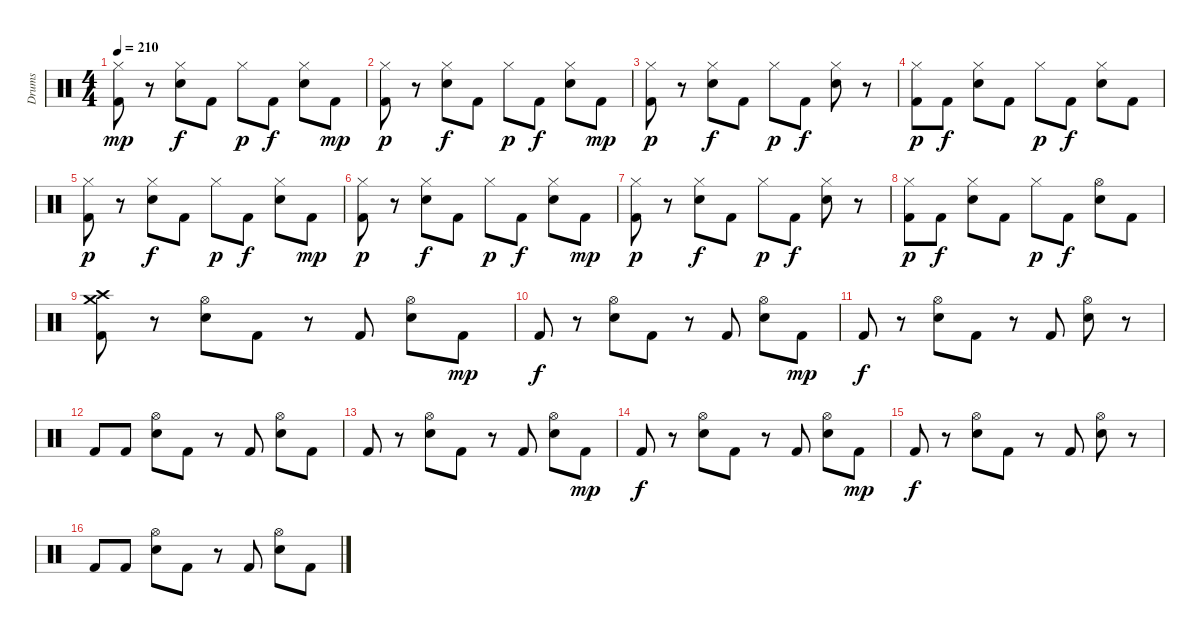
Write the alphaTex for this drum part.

\track ("Drums" "Drums") {instrument percussion}
\staff {score}
\articulation defaults
\ts (4 4)
\tempo 210
\clef neutral
\ks c
("Hi-Hat (closed)" "Kick (hit) 2").8{dy mp} r.8 ("Hi-Hat (closed)" "Electric Snare (hit)").8{dy f} "Kick (hit) 2".8 "Hi-Hat (closed)".8{dy p} "Kick (hit) 2".8{dy f} ("Hi-Hat (closed)" "Electric Snare (hit)").8 "Kick (hit) 2".8{dy mp} |
("Hi-Hat (closed)" "Kick (hit) 2").8{dy p} r.8 ("Hi-Hat (closed)" "Electric Snare (hit)").8{dy f} "Kick (hit) 2".8 "Hi-Hat (closed)".8{dy p} "Kick (hit) 2".8{dy f} ("Hi-Hat (closed)" "Electric Snare (hit)").8 "Kick (hit) 2".8{dy mp} |
("Hi-Hat (closed)" "Kick (hit) 2").8{dy p} r.8 ("Hi-Hat (closed)" "Electric Snare (hit)").8{dy f} "Kick (hit) 2".8 "Hi-Hat (closed)".8{dy p} "Kick (hit) 2".8{dy f} ("Hi-Hat (closed)" "Electric Snare (hit)").8 r.8 |
("Hi-Hat (closed)" "Kick (hit) 2").8{dy p} "Kick (hit) 2".8{dy f} ("Hi-Hat (closed)" "Electric Snare (hit)").8 "Kick (hit) 2".8 "Hi-Hat (closed)".8{dy p} "Kick (hit) 2".8{dy f} ("Hi-Hat (closed)" "Electric Snare (hit)").8 "Kick (hit) 2".8 |
("Hi-Hat (closed)" "Kick (hit) 2").8{dy p} r.8 ("Hi-Hat (closed)" "Electric Snare (hit)").8{dy f} "Kick (hit) 2".8 "Hi-Hat (closed)".8{dy p} "Kick (hit) 2".8{dy f} ("Hi-Hat (closed)" "Electric Snare (hit)").8 "Kick (hit) 2".8{dy mp} |
("Hi-Hat (closed)" "Kick (hit) 2").8{dy p} r.8 ("Hi-Hat (closed)" "Electric Snare (hit)").8{dy f} "Kick (hit) 2".8 "Hi-Hat (closed)".8{dy p} "Kick (hit) 2".8{dy f} ("Hi-Hat (closed)" "Electric Snare (hit)").8 "Kick (hit) 2".8{dy mp} |
("Hi-Hat (closed)" "Kick (hit) 2").8{dy p} r.8 ("Hi-Hat (closed)" "Electric Snare (hit)").8{dy f} "Kick (hit) 2".8 "Hi-Hat (closed)".8{dy p} "Kick (hit) 2".8{dy f} ("Hi-Hat (closed)" "Electric Snare (hit)").8 r.8 |
("Hi-Hat (closed)" "Kick (hit) 2").8{dy p} "Kick (hit) 2".8{dy f} ("Hi-Hat (closed)" "Electric Snare (hit)").8 "Kick (hit) 2".8 "Hi-Hat (closed)".8{dy p} "Kick (hit) 2".8{dy f} ("Hi-Hat (open)" "Electric Snare (hit)").8 "Kick (hit) 2".8 |
("Crash high (hit)" "Crash medium (hit)" "Kick (hit) 2").8 r.8 ("Hi-Hat (open)" "Electric Snare (hit)").8 "Kick (hit) 2".8 r.8 "Kick (hit) 2".8 ("Hi-Hat (open)" "Electric Snare (hit)").8 "Kick (hit) 2".8{dy mp} |
"Kick (hit) 2".8{dy f} r.8 ("Hi-Hat (open)" "Electric Snare (hit)").8 "Kick (hit) 2".8 r.8 "Kick (hit) 2".8 ("Hi-Hat (open)" "Electric Snare (hit)").8 "Kick (hit) 2".8{dy mp} |
"Kick (hit) 2".8{dy f} r.8 ("Hi-Hat (open)" "Electric Snare (hit)").8 "Kick (hit) 2".8 r.8 "Kick (hit) 2".8 ("Hi-Hat (open)" "Electric Snare (hit)").8 r.8 |
"Kick (hit) 2".8 "Kick (hit) 2".8 ("Hi-Hat (open)" "Electric Snare (hit)").8 "Kick (hit) 2".8 r.8 "Kick (hit) 2".8 ("Hi-Hat (open)" "Electric Snare (hit)").8 "Kick (hit) 2".8 |
"Kick (hit) 2".8 r.8 ("Hi-Hat (open)" "Electric Snare (hit)").8 "Kick (hit) 2".8 r.8 "Kick (hit) 2".8 ("Hi-Hat (open)" "Electric Snare (hit)").8 "Kick (hit) 2".8{dy mp} |
"Kick (hit) 2".8{dy f} r.8 ("Hi-Hat (open)" "Electric Snare (hit)").8 "Kick (hit) 2".8 r.8 "Kick (hit) 2".8 ("Hi-Hat (open)" "Electric Snare (hit)").8 "Kick (hit) 2".8{dy mp} |
"Kick (hit) 2".8{dy f} r.8 ("Hi-Hat (open)" "Electric Snare (hit)").8 "Kick (hit) 2".8 r.8 "Kick (hit) 2".8 ("Hi-Hat (open)" "Electric Snare (hit)").8 r.8 |
"Kick (hit) 2".8 "Kick (hit) 2".8 ("Hi-Hat (open)" "Electric Snare (hit)").8 "Kick (hit) 2".8 r.8 "Kick (hit) 2".8 ("Hi-Hat (open)" "Electric Snare (hit)").8 "Kick (hit) 2".8
